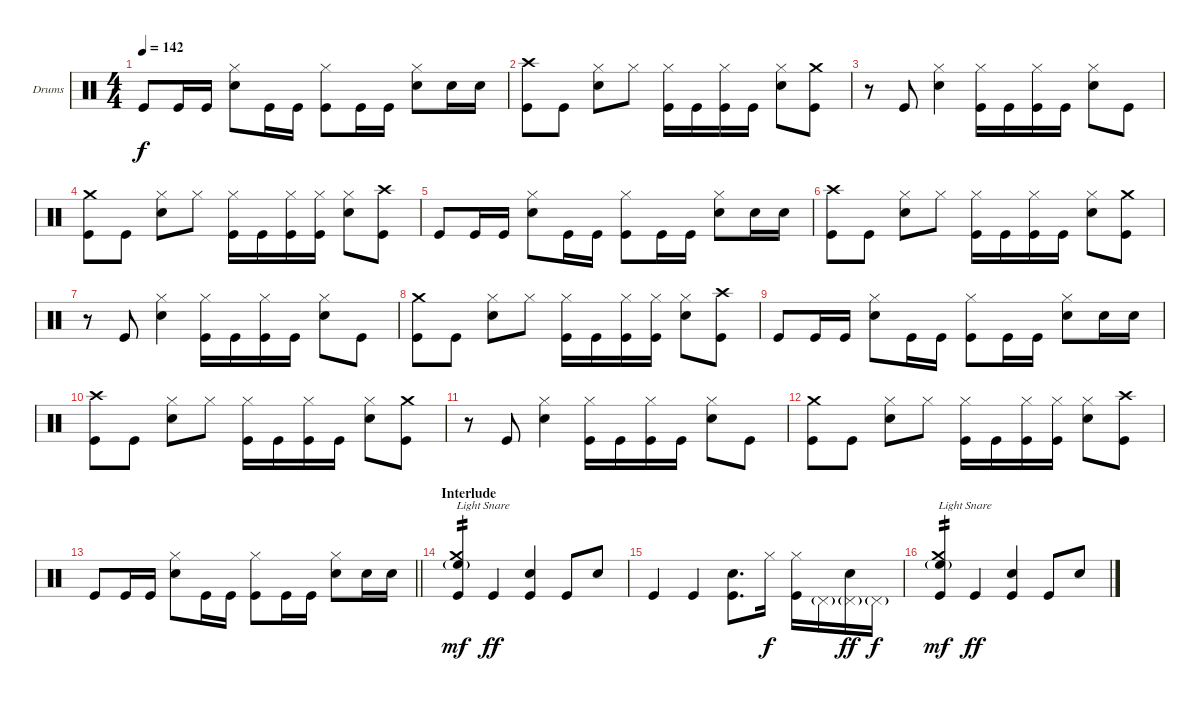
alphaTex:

\bracketExtendMode groupsimilarinstruments
\firstSystemTrackNameOrientation horizontal
\otherSystemsTrackNameOrientation horizontal
\track ("Percussion" "Drums") {instrument percussion}
\staff {score}
\articulation defaults
\ts (4 4)
\tempo 142
\clef neutral
\ks c "Kick (hit)".8{dy f} "Kick (hit)".16 "Kick (hit)".16
("Hi-Hat (closed)" "Snare (hit) 2").8 "Kick (hit)".16 "Kick (hit)".16 ("Hi-Hat (closed)" "Kick (hit)").8 "Kick (hit)".16 "Kick (hit)".16 ("Hi-Hat (closed)" "Snare (hit) 2").8 "Snare (hit) 2".16 "Snare (hit) 2".16 |
("Crash high (hit)" "Kick (hit)").8 "Kick (hit)".8 ("Hi-Hat (closed)" "Snare (hit) 2").8 "Hi-Hat (closed)".8 ("Hi-Hat (closed)" "Kick (hit)").16 "Kick (hit)".16 ("Hi-Hat (closed)" "Kick (hit)").16 "Kick (hit)".16 ("Hi-Hat (closed)" "Snare (hit) 2").8 ("Crash medium (hit)" "Kick (hit)").8 |
r.8 "Kick (hit)".8 ("Hi-Hat (closed)" "Snare (hit) 2").4 ("Hi-Hat (closed)" "Kick (hit)").16 "Kick (hit)".16 ("Hi-Hat (closed)" "Kick (hit)").16 "Kick (hit)".16 ("Hi-Hat (closed)" "Snare (hit) 2").8 "Kick (hit)".8 |
("Crash medium (hit)" "Kick (hit)").8 "Kick (hit)".8 ("Hi-Hat (closed)" "Snare (hit) 2").8 "Hi-Hat (closed)".8 ("Hi-Hat (closed)" "Kick (hit)").16 "Kick (hit)".16 ("Hi-Hat (closed)" "Kick (hit)").16 ("Hi-Hat (closed)" "Kick (hit)").16 ("Hi-Hat (closed)" "Snare (hit) 2").8 ("Crash high (hit)" "Kick (hit)").8 |
"Kick (hit)".8 "Kick (hit)".16 "Kick (hit)".16 ("Hi-Hat (closed)" "Snare (hit) 2").8 "Kick (hit)".16 "Kick (hit)".16 ("Hi-Hat (closed)" "Kick (hit)").8 "Kick (hit)".16 "Kick (hit)".16 ("Hi-Hat (closed)" "Snare (hit) 2").8 "Snare (hit) 2".16 "Snare (hit) 2".16 |
("Crash high (hit)" "Kick (hit)").8 "Kick (hit)".8 ("Hi-Hat (closed)" "Snare (hit) 2").8 "Hi-Hat (closed)".8 ("Hi-Hat (closed)" "Kick (hit)").16 "Kick (hit)".16 ("Hi-Hat (closed)" "Kick (hit)").16 "Kick (hit)".16 ("Hi-Hat (closed)" "Snare (hit) 2").8 ("Crash medium (hit)" "Kick (hit)").8 |
r.8 "Kick (hit)".8 ("Hi-Hat (closed)" "Snare (hit) 2").4 ("Hi-Hat (closed)" "Kick (hit)").16 "Kick (hit)".16 ("Hi-Hat (closed)" "Kick (hit)").16 "Kick (hit)".16 ("Hi-Hat (closed)" "Snare (hit) 2").8 "Kick (hit)".8 |
("Crash medium (hit)" "Kick (hit)").8 "Kick (hit)".8 ("Hi-Hat (closed)" "Snare (hit) 2").8 "Hi-Hat (closed)".8 ("Hi-Hat (closed)" "Kick (hit)").16 "Kick (hit)".16 ("Hi-Hat (closed)" "Kick (hit)").16 ("Hi-Hat (closed)" "Kick (hit)").16 ("Hi-Hat (closed)" "Snare (hit) 2").8 ("Crash high (hit)" "Kick (hit)").8 |
"Kick (hit)".8 "Kick (hit)".16 "Kick (hit)".16 ("Hi-Hat (closed)" "Snare (hit) 2").8 "Kick (hit)".16 "Kick (hit)".16 ("Hi-Hat (closed)" "Kick (hit)").8 "Kick (hit)".16 "Kick (hit)".16 ("Hi-Hat (closed)" "Snare (hit) 2").8 "Snare (hit) 2".16 "Snare (hit) 2".16 |
("Crash high (hit)" "Kick (hit)").8 "Kick (hit)".8 ("Hi-Hat (closed)" "Snare (hit) 2").8 "Hi-Hat (closed)".8 ("Hi-Hat (closed)" "Kick (hit)").16 "Kick (hit)".16 ("Hi-Hat (closed)" "Kick (hit)").16 "Kick (hit)".16 ("Hi-Hat (closed)" "Snare (hit) 2").8 ("Crash medium (hit)" "Kick (hit)").8 |
r.8 "Kick (hit)".8 ("Hi-Hat (closed)" "Snare (hit) 2").4 ("Hi-Hat (closed)" "Kick (hit)").16 "Kick (hit)".16 ("Hi-Hat (closed)" "Kick (hit)").16 "Kick (hit)".16 ("Hi-Hat (closed)" "Snare (hit) 2").8 "Kick (hit)".8 |
("Crash medium (hit)" "Kick (hit)").8 "Kick (hit)".8 ("Hi-Hat (closed)" "Snare (hit) 2").8 "Hi-Hat (closed)".8 ("Hi-Hat (closed)" "Kick (hit)").16 "Kick (hit)".16 ("Hi-Hat (closed)" "Kick (hit)").16 ("Hi-Hat (closed)" "Kick (hit)").16 ("Hi-Hat (closed)" "Snare (hit) 2").8 ("Crash high (hit)" "Kick (hit)").8 |
\barLineRight lightlight "Kick (hit)".8 "Kick (hit)".16 "Kick (hit)".16
("Hi-Hat (closed)" "Snare (hit) 2").8 "Kick (hit)".16 "Kick (hit)".16 ("Hi-Hat (closed)" "Kick (hit)").8 "Kick (hit)".16 "Kick (hit)".16 ("Hi-Hat (closed)" "Snare (hit) 2").8 "Snare (hit) 2".16 "Snare (hit) 2".16 |
\section ("" "Interlude")
\tempo (150 hide)
("Crash medium (hit)" "High Floor Tom (hit)"{g} "Kick (hit)").4{txt "Light Snare" tp 2 dy mf} "Kick (hit)".4{dy ff} ("Snare (hit) 2" "Kick (hit)").4 "Kick (hit)".8 "Snare (hit) 2".8 |
"Kick (hit)".4 "Kick (hit)".4 ("Snare (hit) 2" "Kick (hit)").8{d} "Hi-Hat (closed)".16{dy f} ("Hi-Hat (closed)" "Kick (hit)").16 "Pedal Hi-Hat (hit)"{g}.16 ("Pedal Hi-Hat (hit)"{g} "Snare (hit) 2").16{dy ff} "Pedal Hi-Hat (hit)"{g}.16{dy f} |
("Crash medium (hit)" "High Floor Tom (hit)"{g} "Kick (hit)").4{txt "Light Snare" tp 2 dy mf} "Kick (hit)".4{dy ff} ("Snare (hit) 2" "Kick (hit)").4 "Kick (hit)".8 "Snare (hit) 2".8
